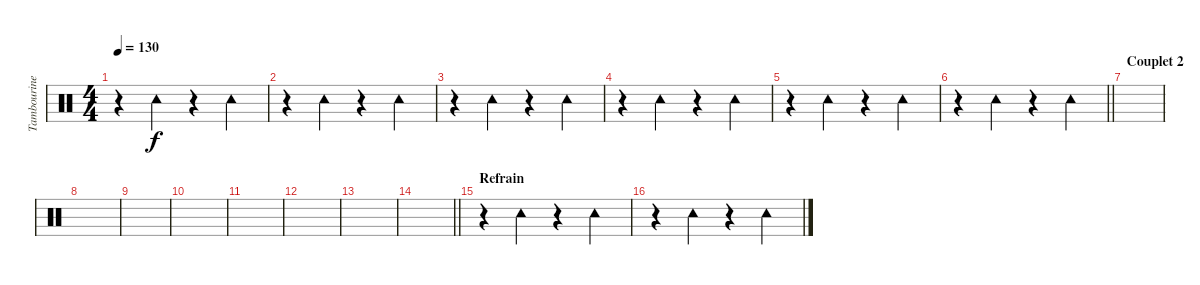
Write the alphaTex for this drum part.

\track ("Tambourine" "Tambourine") {instrument percussion}
\staff {score}
\articulation defaults
\ts (4 4)
\tempo 130
\clef neutral
\ks c
r.4{dy f} "Tambourine (hit)".4 r.4 "Tambourine (hit)".4 |
r.4 "Tambourine (hit)".4 r.4 "Tambourine (hit)".4 |
r.4 "Tambourine (hit)".4 r.4 "Tambourine (hit)".4 |
r.4 "Tambourine (hit)".4 r.4 "Tambourine (hit)".4 |
r.4 "Tambourine (hit)".4 r.4 "Tambourine (hit)".4 |
\barLineRight lightlight
r.4 "Tambourine (hit)".4 r.4 "Tambourine (hit)".4 |
\section ("" "Couplet 2")
|
|
|
|
|
|
|
\barLineRight lightlight
|
\section ("" "Refrain")
r.4 "Tambourine (hit)".4 r.4 "Tambourine (hit)".4 |
r.4 "Tambourine (hit)".4 r.4 "Tambourine (hit)".4
